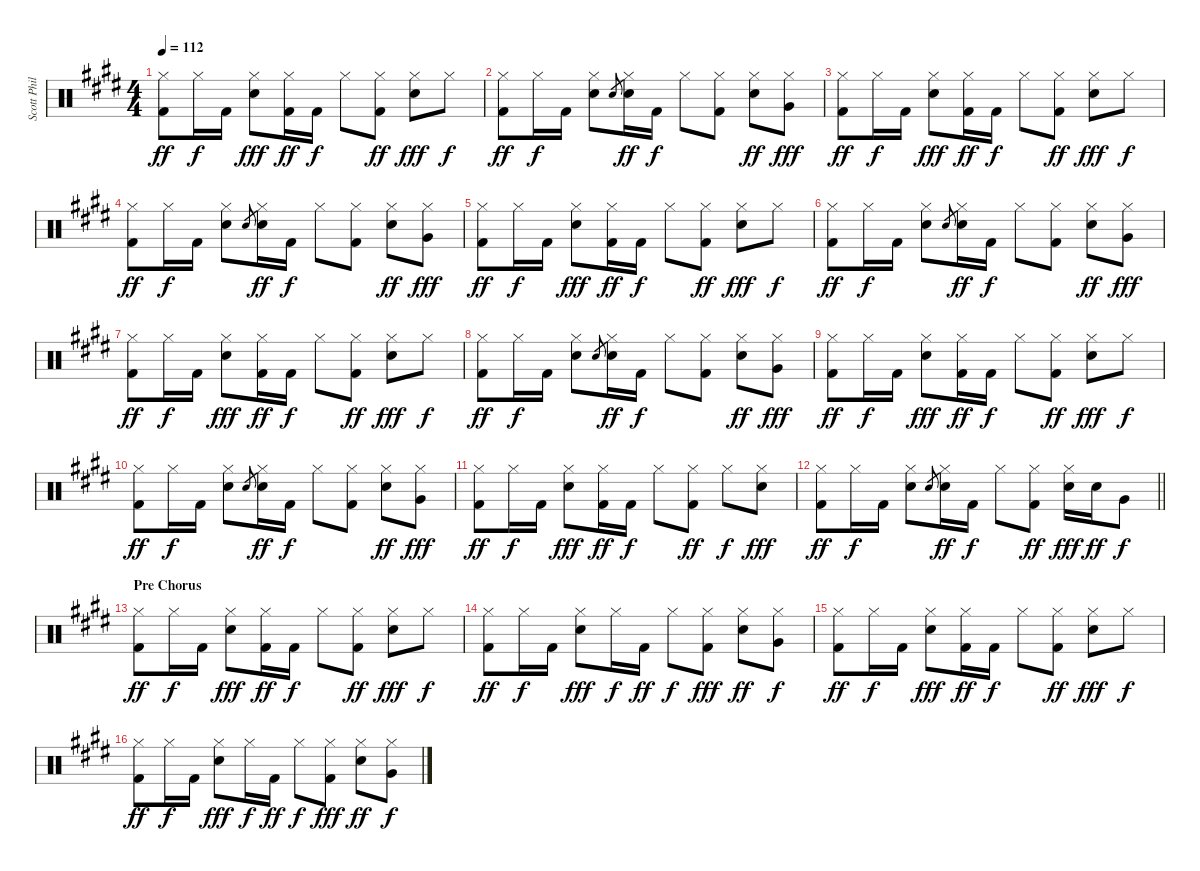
\track ("Scott Phillips" "Scott Phil") {instrument percussion}
\staff {score}
\articulation defaults
\ts (4 4)
\tempo 112
\clef neutral
\ks c#minor
("Hi-Hat (closed)" "Kick (hit) 2").8{dy ff} "Hi-Hat (closed)".16{dy f} "Kick (hit) 2".16 ("Hi-Hat (closed)" "Electric Snare (hit)").8{dy fff} ("Hi-Hat (closed)" "Kick (hit) 2").16{dy ff} "Kick (hit) 2".16{dy f} "Hi-Hat (closed)".8 ("Hi-Hat (closed)" "Kick (hit) 2").8{dy ff} ("Hi-Hat (closed)" "Electric Snare (hit)").8{dy fff} "Hi-Hat (closed)".8{dy f} |
("Hi-Hat (closed)" "Kick (hit) 2").8{dy ff} "Hi-Hat (closed)".16{dy f} "Kick (hit) 2".16 ("Hi-Hat (closed)" "Electric Snare (hit)").8 "Electric Snare (hit)".8{gr} ("Hi-Hat (closed)" "Electric Snare (hit)").16{dy ff} "Kick (hit) 2".16{dy f} "Hi-Hat (closed)".8 ("Hi-Hat (closed)" "Kick (hit) 2").8 ("Hi-Hat (closed)" "Electric Snare (hit)").8{dy ff} ("Hi-Hat (closed)" "Very Low Tom (hit)").8{dy fff} |
("Hi-Hat (closed)" "Kick (hit) 2").8{dy ff} "Hi-Hat (closed)".16{dy f} "Kick (hit) 2".16 ("Hi-Hat (closed)" "Electric Snare (hit)").8{dy fff} ("Hi-Hat (closed)" "Kick (hit) 2").16{dy ff} "Kick (hit) 2".16{dy f} "Hi-Hat (closed)".8 ("Hi-Hat (closed)" "Kick (hit) 2").8{dy ff} ("Hi-Hat (closed)" "Electric Snare (hit)").8{dy fff} "Hi-Hat (closed)".8{dy f} |
("Hi-Hat (closed)" "Kick (hit) 2").8{dy ff} "Hi-Hat (closed)".16{dy f} "Kick (hit) 2".16 ("Hi-Hat (closed)" "Electric Snare (hit)").8 "Electric Snare (hit)".8{gr} ("Hi-Hat (closed)" "Electric Snare (hit)").16{dy ff} "Kick (hit) 2".16{dy f} "Hi-Hat (closed)".8 ("Hi-Hat (closed)" "Kick (hit) 2").8 ("Hi-Hat (closed)" "Electric Snare (hit)").8{dy ff} ("Hi-Hat (closed)" "Very Low Tom (hit)").8{dy fff} |
("Hi-Hat (closed)" "Kick (hit) 2").8{dy ff} "Hi-Hat (closed)".16{dy f} "Kick (hit) 2".16 ("Hi-Hat (closed)" "Electric Snare (hit)").8{dy fff} ("Hi-Hat (closed)" "Kick (hit) 2").16{dy ff} "Kick (hit) 2".16{dy f} "Hi-Hat (closed)".8 ("Hi-Hat (closed)" "Kick (hit) 2").8{dy ff} ("Hi-Hat (closed)" "Electric Snare (hit)").8{dy fff} "Hi-Hat (closed)".8{dy f} |
("Hi-Hat (closed)" "Kick (hit) 2").8{dy ff} "Hi-Hat (closed)".16{dy f} "Kick (hit) 2".16 ("Hi-Hat (closed)" "Electric Snare (hit)").8 "Electric Snare (hit)".8{gr} ("Hi-Hat (closed)" "Electric Snare (hit)").16{dy ff} "Kick (hit) 2".16{dy f} "Hi-Hat (closed)".8 ("Hi-Hat (closed)" "Kick (hit) 2").8 ("Hi-Hat (closed)" "Electric Snare (hit)").8{dy ff} ("Hi-Hat (closed)" "Very Low Tom (hit)").8{dy fff} |
("Hi-Hat (closed)" "Kick (hit) 2").8{dy ff} "Hi-Hat (closed)".16{dy f} "Kick (hit) 2".16 ("Hi-Hat (closed)" "Electric Snare (hit)").8{dy fff} ("Hi-Hat (closed)" "Kick (hit) 2").16{dy ff} "Kick (hit) 2".16{dy f} "Hi-Hat (closed)".8 ("Hi-Hat (closed)" "Kick (hit) 2").8{dy ff} ("Hi-Hat (closed)" "Electric Snare (hit)").8{dy fff} "Hi-Hat (closed)".8{dy f} |
("Hi-Hat (closed)" "Kick (hit) 2").8{dy ff} "Hi-Hat (closed)".16{dy f} "Kick (hit) 2".16 ("Hi-Hat (closed)" "Electric Snare (hit)").8 "Electric Snare (hit)".8{gr} ("Hi-Hat (closed)" "Electric Snare (hit)").16{dy ff} "Kick (hit) 2".16{dy f} "Hi-Hat (closed)".8 ("Hi-Hat (closed)" "Kick (hit) 2").8 ("Hi-Hat (closed)" "Electric Snare (hit)").8{dy ff} ("Hi-Hat (closed)" "Very Low Tom (hit)").8{dy fff} |
("Hi-Hat (closed)" "Kick (hit) 2").8{dy ff} "Hi-Hat (closed)".16{dy f} "Kick (hit) 2".16 ("Hi-Hat (closed)" "Electric Snare (hit)").8{dy fff} ("Hi-Hat (closed)" "Kick (hit) 2").16{dy ff} "Kick (hit) 2".16{dy f} "Hi-Hat (closed)".8 ("Hi-Hat (closed)" "Kick (hit) 2").8{dy ff} ("Hi-Hat (closed)" "Electric Snare (hit)").8{dy fff} "Hi-Hat (closed)".8{dy f} |
("Hi-Hat (closed)" "Kick (hit) 2").8{dy ff} "Hi-Hat (closed)".16{dy f} "Kick (hit) 2".16 ("Hi-Hat (closed)" "Electric Snare (hit)").8 "Electric Snare (hit)".8{gr} ("Hi-Hat (closed)" "Electric Snare (hit)").16{dy ff} "Kick (hit) 2".16{dy f} "Hi-Hat (closed)".8 ("Hi-Hat (closed)" "Kick (hit) 2").8 ("Hi-Hat (closed)" "Electric Snare (hit)").8{dy ff} ("Hi-Hat (closed)" "Very Low Tom (hit)").8{dy fff} |
("Hi-Hat (closed)" "Kick (hit) 2").8{dy ff} "Hi-Hat (closed)".16{dy f} "Kick (hit) 2".16 ("Hi-Hat (closed)" "Electric Snare (hit)").8{dy fff} ("Hi-Hat (closed)" "Kick (hit) 2").16{dy ff} "Kick (hit) 2".16{dy f} "Hi-Hat (closed)".8 ("Hi-Hat (closed)" "Kick (hit) 2").8{dy ff} "Hi-Hat (closed)".8{dy f} ("Hi-Hat (closed)" "Electric Snare (hit)").8{dy fff} |
\barLineRight lightlight
("Hi-Hat (closed)" "Kick (hit) 2").8{dy ff} "Hi-Hat (closed)".16{dy f} "Kick (hit) 2".16 ("Hi-Hat (closed)" "Electric Snare (hit)").8 "Electric Snare (hit)".8{gr} ("Hi-Hat (closed)" "Electric Snare (hit)").16{dy ff} "Kick (hit) 2".16{dy f} "Hi-Hat (closed)".8 ("Hi-Hat (closed)" "Kick (hit) 2").8{dy ff} ("Hi-Hat (closed)" "Electric Snare (hit)").16{dy fff} "Electric Snare (hit)".16{dy ff} "Very Low Tom (hit)".8{dy f} |
\section ("" "Pre Chorus")
("Hi-Hat (closed)" "Kick (hit) 2").8{dy ff} "Hi-Hat (closed)".16{dy f} "Kick (hit) 2".16 ("Hi-Hat (closed)" "Electric Snare (hit)").8{dy fff} ("Hi-Hat (closed)" "Kick (hit) 2").16{dy ff} "Kick (hit) 2".16{dy f} "Hi-Hat (closed)".8 ("Hi-Hat (closed)" "Kick (hit) 2").8{dy ff} ("Hi-Hat (closed)" "Electric Snare (hit)").8{dy fff} "Hi-Hat (closed)".8{dy f} |
("Hi-Hat (closed)" "Kick (hit) 2").8{dy ff} "Hi-Hat (closed)".16{dy f} "Kick (hit) 2".16 ("Hi-Hat (closed)" "Electric Snare (hit)").8{dy fff} "Hi-Hat (closed)".16{dy f} "Kick (hit) 2".16{dy ff} "Hi-Hat (closed)".8{dy f} ("Hi-Hat (closed)" "Kick (hit) 2").8{dy fff} ("Hi-Hat (closed)" "Electric Snare (hit)").8{dy ff} ("Hi-Hat (closed)" "Very Low Tom (hit)").8{dy f} |
("Hi-Hat (closed)" "Kick (hit) 2").8{dy ff} "Hi-Hat (closed)".16{dy f} "Kick (hit) 2".16 ("Hi-Hat (closed)" "Electric Snare (hit)").8{dy fff} ("Hi-Hat (closed)" "Kick (hit) 2").16{dy ff} "Kick (hit) 2".16{dy f} "Hi-Hat (closed)".8 ("Hi-Hat (closed)" "Kick (hit) 2").8{dy ff} ("Hi-Hat (closed)" "Electric Snare (hit)").8{dy fff} "Hi-Hat (closed)".8{dy f} |
("Hi-Hat (closed)" "Kick (hit) 2").8{dy ff} "Hi-Hat (closed)".16{dy f} "Kick (hit) 2".16 ("Hi-Hat (closed)" "Electric Snare (hit)").8{dy fff} "Hi-Hat (closed)".16{dy f} "Kick (hit) 2".16{dy ff} "Hi-Hat (closed)".8{dy f} ("Hi-Hat (closed)" "Kick (hit) 2").8{dy fff} ("Hi-Hat (closed)" "Electric Snare (hit)").8{dy ff} ("Hi-Hat (closed)" "Very Low Tom (hit)").8{dy f}
